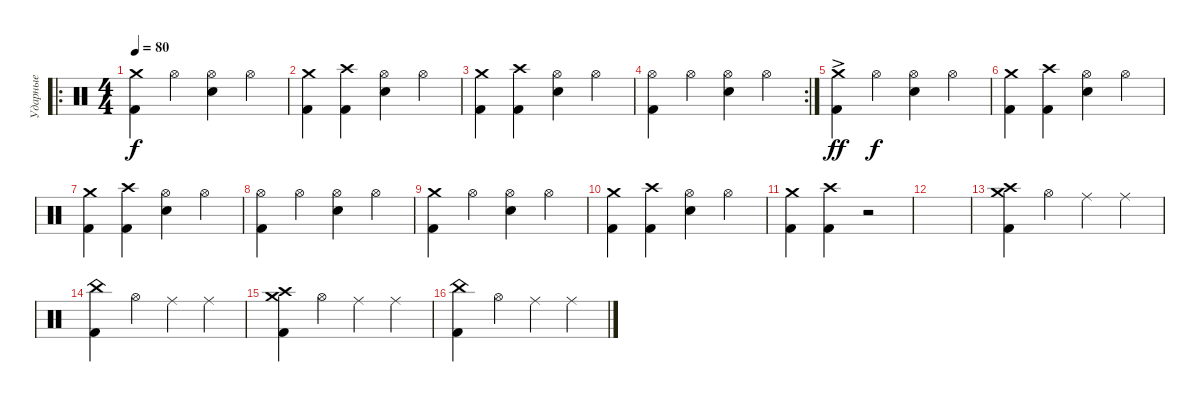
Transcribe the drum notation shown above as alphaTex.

\track ("Ударные" "Ударные") {instrument percussion}
\staff {score}
\articulation defaults
\ro
\ts (4 4)
\tempo 80
\clef neutral
\ks c
("Crash medium (hit)" "Kick (hit) 2").4{dy f} "Hi-Hat (open)".4 ("Hi-Hat (open)" "Electric Snare (hit)").4 "Hi-Hat (open)".4 |
("Crash medium (hit)" "Kick (hit) 2").4 ("Crash high (hit)" "Kick (hit) 2").4 ("Hi-Hat (open)" "Electric Snare (hit)").4 "Hi-Hat (open)".4 |
("Crash medium (hit)" "Kick (hit) 2").4 ("Crash high (hit)" "Kick (hit) 2").4 ("Hi-Hat (open)" "Electric Snare (hit)").4 "Hi-Hat (open)".4 |
\rc 2
("Hi-Hat (open)" "Kick (hit) 2").4 "Hi-Hat (open)".4 ("Hi-Hat (open)" "Electric Snare (hit)").4 "Hi-Hat (open)".4 |
("Crash medium (hit)" "Kick (hit) 2"{ac}).4{dy ff} "Hi-Hat (open)".4{dy f} ("Hi-Hat (open)" "Electric Snare (hit)").4 "Hi-Hat (open)".4 |
("Crash medium (hit)" "Kick (hit) 2").4 ("Crash high (hit)" "Kick (hit) 2").4 ("Hi-Hat (open)" "Electric Snare (hit)").4 "Hi-Hat (open)".4 |
("Crash medium (hit)" "Kick (hit) 2").4 ("Crash high (hit)" "Kick (hit) 2").4 ("Hi-Hat (open)" "Electric Snare (hit)").4 "Hi-Hat (open)".4 |
("Hi-Hat (open)" "Kick (hit) 2").4 "Hi-Hat (open)".4 ("Hi-Hat (open)" "Electric Snare (hit)").4 "Hi-Hat (open)".4 |
("Crash medium (hit)" "Kick (hit) 2").4 "Hi-Hat (open)".4 ("Hi-Hat (open)" "Electric Snare (hit)").4 "Hi-Hat (open)".4 |
("Crash medium (hit)" "Kick (hit) 2").4 ("Crash high (hit)" "Kick (hit) 2").4 ("Hi-Hat (open)" "Electric Snare (hit)").4 "Hi-Hat (open)".4 |
("Crash medium (hit)" "Kick (hit) 2").4 ("Crash high (hit)" "Kick (hit) 2").4 r.2 |
|
("Crash medium (hit)" "Crash high (hit)" "Kick (hit) 2").4 "Hi-Hat (open)".4 "Ride (middle)".4 "Ride (middle)".4 |
("China (hit)" "Kick (hit) 2").4 "Hi-Hat (open)".4 "Ride (middle)".4 "Ride (middle)".4 |
("Crash medium (hit)" "Crash high (hit)" "Kick (hit) 2").4 "Hi-Hat (open)".4 "Ride (middle)".4 "Ride (middle)".4 |
("China (hit)" "Kick (hit) 2").4 "Hi-Hat (open)".4 "Ride (middle)".4 "Ride (middle)".4
